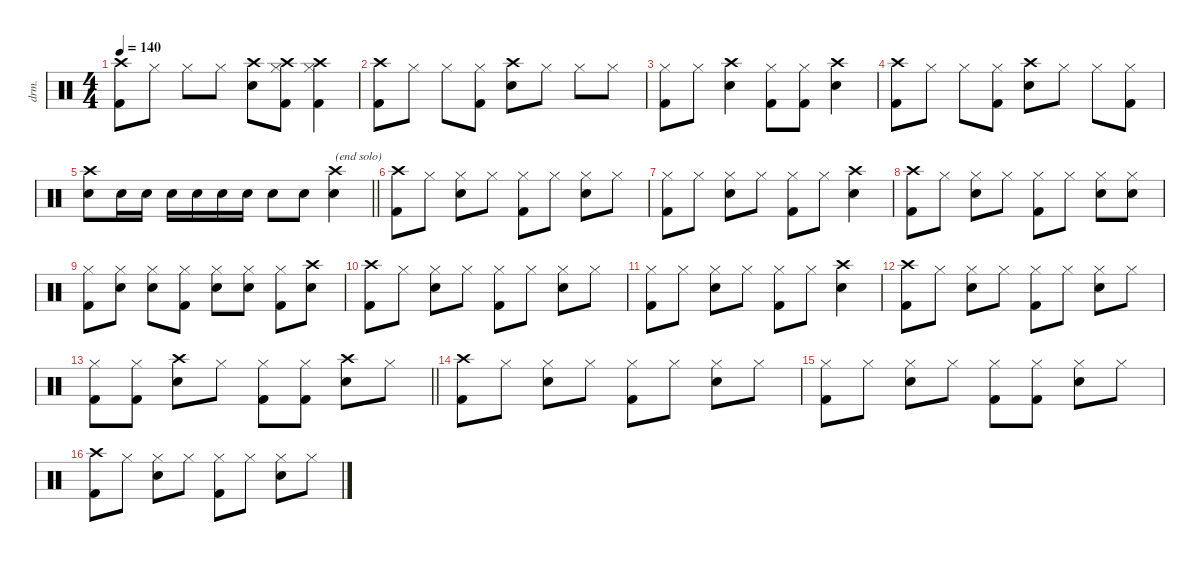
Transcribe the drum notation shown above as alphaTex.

\defaultSystemsLayout 4
\hideDynamics
\bracketExtendMode nobrackets
\otherSystemsTrackNameOrientation horizontal
\track ("Drums" "drm.") {defaultSystemsLayout 4 instrument percussion}
\staff {score}
\articulation defaults
\ts (4 4)
\tempo 140
\clef neutral
\ks aminor
("Crash high (hit)" "Kick (hit) 2").8{dy f beam Down} "Hi-Hat (closed)".8{beam Down} "Hi-Hat (closed)".8{beam Down} "Hi-Hat (closed)".8{beam Down} ("Crash high (hit)" "Snare (hit) 2").8{beam Down} ("Crash high (hit)" "Hi-Hat (closed)" "Kick (hit) 2").8{beam Down} ("Crash high (hit)" "Hi-Hat (closed)" "Kick (hit) 2").4{beam Down} |
("Crash high (hit)" "Kick (hit) 2").8{beam Down} "Hi-Hat (closed)".8{beam Down} "Hi-Hat (closed)".8{beam Down} ("Hi-Hat (closed)" "Kick (hit) 2").8{beam Down} ("Crash high (hit)" "Snare (hit) 2").8{beam Down} "Hi-Hat (closed)".8{beam Down} "Hi-Hat (closed)".8{beam Down} "Hi-Hat (closed)".8{beam Down} |
("Hi-Hat (closed)" "Kick (hit) 2").8{beam Down} "Hi-Hat (closed)".8{beam Down} ("Crash high (hit)" "Snare (hit) 2").4{beam Down} ("Hi-Hat (closed)" "Kick (hit) 2").8{beam Down} ("Hi-Hat (closed)" "Kick (hit) 2").8{beam Down} ("Crash high (hit)" "Snare (hit) 2").4{beam Down} |
("Crash high (hit)" "Kick (hit) 2").8{beam Down} "Hi-Hat (closed)".8{beam Down} "Hi-Hat (closed)".8{beam Down} ("Hi-Hat (closed)" "Kick (hit) 2").8{beam Down} ("Crash high (hit)" "Snare (hit) 2").8{beam Down} "Hi-Hat (closed)".8{beam Down} "Hi-Hat (closed)".8{beam Down} ("Hi-Hat (closed)" "Kick (hit) 2").8{beam Down} |
\barLineRight lightlight
("Crash high (hit)" "Snare (hit) 2").8{beam Down} "Snare (hit) 2".16{beam Down} "Snare (hit) 2".16{beam Down} "Snare (hit) 2".16{beam Down} "Snare (hit) 2".16{beam Down} "Snare (hit) 2".16{beam Down} "Snare (hit) 2".16{beam Down} "Snare (hit) 2".8{beam Down} "Snare (hit) 2".8{beam Down} ("Crash high (hit)" "Snare (hit) 2").4{txt "(end solo)" beam Down} |
("Crash high (hit)" "Kick (hit) 2").8{beam Down} "Hi-Hat (closed)".8{beam Down} ("Hi-Hat (closed)" "Snare (hit) 2").8{beam Down} "Hi-Hat (closed)".8{beam Down} ("Hi-Hat (closed)" "Kick (hit) 2").8{beam Down} "Hi-Hat (closed)".8{beam Down} ("Hi-Hat (closed)" "Snare (hit) 2").8{beam Down} "Hi-Hat (closed)".8{beam Down} |
("Hi-Hat (closed)" "Kick (hit) 2").8{beam Down} "Hi-Hat (closed)".8{beam Down} ("Hi-Hat (closed)" "Snare (hit) 2").8{beam Down} "Hi-Hat (closed)".8{beam Down} ("Hi-Hat (closed)" "Kick (hit) 2").8{beam Down} "Hi-Hat (closed)".8{beam Down} ("Crash high (hit)" "Snare (hit) 2").4{beam Down} |
("Crash high (hit)" "Kick (hit) 2").8{beam Down} "Hi-Hat (closed)".8{beam Down} ("Hi-Hat (closed)" "Snare (hit) 2").8{beam Down} "Hi-Hat (closed)".8{beam Down} ("Hi-Hat (closed)" "Kick (hit) 2").8{beam Down} "Hi-Hat (closed)".8{beam Down} ("Hi-Hat (closed)" "Snare (hit) 2").8{beam Down} ("Hi-Hat (closed)" "Snare (hit) 2").8{beam Down} |
("Hi-Hat (closed)" "Kick (hit) 2").8{beam Down} ("Hi-Hat (closed)" "Snare (hit) 2").8{beam Down} ("Hi-Hat (closed)" "Snare (hit) 2").8{beam Down} ("Hi-Hat (closed)" "Kick (hit) 2").8{beam Down} ("Hi-Hat (closed)" "Snare (hit) 2").8{beam Down} ("Hi-Hat (closed)" "Snare (hit) 2").8{beam Down} ("Hi-Hat (closed)" "Kick (hit) 2").8{beam Down} ("Crash high (hit)" "Snare (hit) 2").8{beam Down} |
("Crash high (hit)" "Kick (hit) 2").8{beam Down} "Hi-Hat (closed)".8{beam Down} ("Hi-Hat (closed)" "Snare (hit) 2").8{beam Down} "Hi-Hat (closed)".8{beam Down} ("Hi-Hat (closed)" "Kick (hit) 2").8{beam Down} "Hi-Hat (closed)".8{beam Down} ("Hi-Hat (closed)" "Snare (hit) 2").8{beam Down} "Hi-Hat (closed)".8{beam Down} |
("Hi-Hat (closed)" "Kick (hit) 2").8{beam Down} "Hi-Hat (closed)".8{beam Down} ("Hi-Hat (closed)" "Snare (hit) 2").8{beam Down} "Hi-Hat (closed)".8{beam Down} ("Hi-Hat (closed)" "Kick (hit) 2").8{beam Down} "Hi-Hat (closed)".8{beam Down} ("Crash high (hit)" "Snare (hit) 2").4{beam Down} |
("Crash high (hit)" "Kick (hit) 2").8{beam Down} "Hi-Hat (closed)".8{beam Down} ("Hi-Hat (closed)" "Snare (hit) 2").8{beam Down} "Hi-Hat (closed)".8{beam Down} ("Hi-Hat (closed)" "Kick (hit) 2").8{beam Down} "Hi-Hat (closed)".8{beam Down} ("Hi-Hat (closed)" "Snare (hit) 2").8{beam Down} "Hi-Hat (closed)".8{beam Down} |
\barLineRight lightlight
("Hi-Hat (closed)" "Kick (hit) 2").8{beam Down} ("Hi-Hat (closed)" "Kick (hit) 2").8{beam Down} ("Crash high (hit)" "Snare (hit) 2").8{beam Down} "Hi-Hat (closed)".8{beam Down} ("Hi-Hat (closed)" "Kick (hit) 2").8{beam Down} ("Hi-Hat (closed)" "Kick (hit) 2").8{beam Down} ("Crash high (hit)" "Snare (hit) 2").8{beam Down} "Hi-Hat (closed)".8{beam Down} |
("Crash high (hit)" "Kick (hit) 2").8{beam Down} "Hi-Hat (closed)".8{beam Down} ("Hi-Hat (closed)" "Snare (hit) 2").8{beam Down} "Hi-Hat (closed)".8{beam Down} ("Hi-Hat (closed)" "Kick (hit) 2").8{beam Down} "Hi-Hat (closed)".8{beam Down} ("Hi-Hat (closed)" "Snare (hit) 2").8{beam Down} "Hi-Hat (closed)".8{beam Down} |
("Hi-Hat (closed)" "Kick (hit) 2").8{beam Down} "Hi-Hat (closed)".8{beam Down} ("Hi-Hat (closed)" "Snare (hit) 2").8{beam Down} "Hi-Hat (closed)".8{beam Down} ("Hi-Hat (closed)" "Kick (hit) 2").8{beam Down} ("Hi-Hat (closed)" "Kick (hit) 2").8{beam Down} ("Hi-Hat (closed)" "Snare (hit) 2").8{beam Down} "Hi-Hat (closed)".8{beam Down} |
("Crash high (hit)" "Kick (hit) 2").8{beam Down} "Hi-Hat (closed)".8{beam Down} ("Hi-Hat (closed)" "Snare (hit) 2").8{beam Down} "Hi-Hat (closed)".8{beam Down} ("Hi-Hat (closed)" "Kick (hit) 2").8{beam Down} "Hi-Hat (closed)".8{beam Down} ("Hi-Hat (closed)" "Snare (hit) 2").8{beam Down} "Hi-Hat (closed)".8{beam Down}
